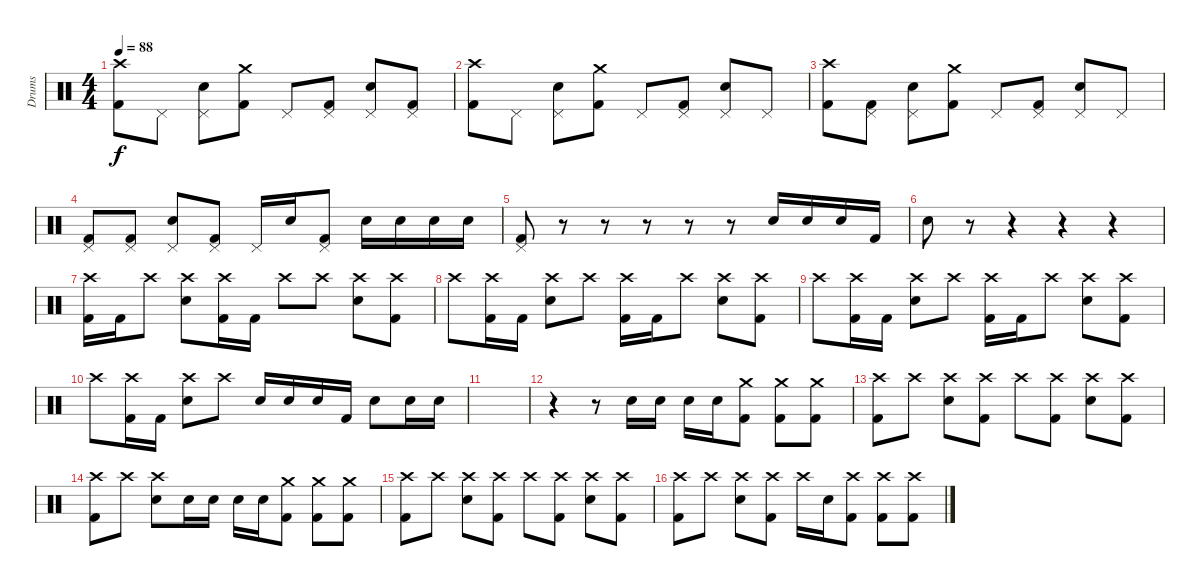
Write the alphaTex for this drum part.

\track ("Drums" "Drums") {instrument percussion}
\staff {score}
\articulation defaults
\ts (4 4)
\tempo 88
\clef neutral
\ks c
("Crash high (hit)" "Kick (hit) 2").8{dy f} "Pedal Hi-Hat (hit)".8 ("Pedal Hi-Hat (hit)" "Electric Snare (hit)").8 ("Crash medium (hit)" "Kick (hit) 2").8 "Pedal Hi-Hat (hit)".8 ("Pedal Hi-Hat (hit)" "Kick (hit) 2").8 ("Pedal Hi-Hat (hit)" "Electric Snare (hit)").8 ("Pedal Hi-Hat (hit)" "Kick (hit) 2").8 |
("Crash high (hit)" "Kick (hit) 2").8 "Pedal Hi-Hat (hit)".8 ("Pedal Hi-Hat (hit)" "Electric Snare (hit)").8 ("Crash medium (hit)" "Kick (hit) 2").8 "Pedal Hi-Hat (hit)".8 ("Pedal Hi-Hat (hit)" "Kick (hit) 2").8 ("Pedal Hi-Hat (hit)" "Electric Snare (hit)").8 "Pedal Hi-Hat (hit)".8 |
("Crash high (hit)" "Kick (hit) 2").8 ("Pedal Hi-Hat (hit)" "Kick (hit) 2").8 ("Pedal Hi-Hat (hit)" "Electric Snare (hit)").8 ("Crash medium (hit)" "Kick (hit) 2").8 "Pedal Hi-Hat (hit)".8 ("Pedal Hi-Hat (hit)" "Kick (hit) 2").8 ("Pedal Hi-Hat (hit)" "Electric Snare (hit)").8 "Pedal Hi-Hat (hit)".8 |
("Pedal Hi-Hat (hit)" "Kick (hit) 2").8 ("Pedal Hi-Hat (hit)" "Kick (hit) 2").8 ("Pedal Hi-Hat (hit)" "Electric Snare (hit)").8 ("Pedal Hi-Hat (hit)" "Kick (hit) 2").8 "Pedal Hi-Hat (hit)".16 "Electric Snare (hit)".16 ("Pedal Hi-Hat (hit)" "Kick (hit) 2").8 "Electric Snare (hit)".16 "Electric Snare (hit)".16 "Electric Snare (hit)".16 "Electric Snare (hit)".16 |
("Pedal Hi-Hat (hit)" "Kick (hit) 2").8 r.8 r.8 r.8 r.8 r.8 "Electric Snare (hit)".16 "Electric Snare (hit)".16 "Electric Snare (hit)".16 "Kick (hit) 2".16 |
"Electric Snare (hit)".8 r.8 r.4 r.4 r.4 |
("Crash high (hit)" "Kick (hit) 2").16 "Kick (hit) 2".16 "Crash high (hit)".8 ("Crash high (hit)" "Electric Snare (hit)").8 ("Crash high (hit)" "Kick (hit) 2").16 "Kick (hit) 2".16 "Crash high (hit)".8 "Crash high (hit)".8 ("Crash high (hit)" "Electric Snare (hit)").8 ("Crash high (hit)" "Kick (hit) 2").8 |
"Crash high (hit)".8 ("Crash high (hit)" "Kick (hit) 2").16 "Kick (hit) 2".16 ("Crash high (hit)" "Electric Snare (hit)").8 "Crash high (hit)".8 ("Crash high (hit)" "Kick (hit) 2").16 "Kick (hit) 2".16 "Crash high (hit)".8 ("Crash high (hit)" "Electric Snare (hit)").8 ("Crash high (hit)" "Kick (hit) 2").8 |
"Crash high (hit)".8 ("Crash high (hit)" "Kick (hit) 2").16 "Kick (hit) 2".16 ("Crash high (hit)" "Electric Snare (hit)").8 "Crash high (hit)".8 ("Crash high (hit)" "Kick (hit) 2").16 "Kick (hit) 2".16 "Crash high (hit)".8 ("Crash high (hit)" "Electric Snare (hit)").8 ("Crash high (hit)" "Kick (hit) 2").8 |
"Crash high (hit)".8 ("Crash high (hit)" "Kick (hit) 2").16 "Kick (hit) 2".16 ("Crash high (hit)" "Electric Snare (hit)").8 "Crash high (hit)".8 "Electric Snare (hit)".16 "Electric Snare (hit)".16 "Electric Snare (hit)".16 "Kick (hit) 2".16 "Electric Snare (hit)".8 "Electric Snare (hit)".16 "Electric Snare (hit)".16 |
|
r.4 r.8 "Electric Snare (hit)".16 "Electric Snare (hit)".16 "Electric Snare (hit)".16 "Electric Snare (hit)".16 ("Crash medium (hit)" "Kick (hit) 2").8 ("Crash medium (hit)" "Kick (hit) 2").8 ("Crash medium (hit)" "Kick (hit) 2").8 |
("Crash high (hit)" "Kick (hit) 2").8 "Crash high (hit)".8 ("Crash high (hit)" "Electric Snare (hit)").8 ("Crash high (hit)" "Kick (hit) 2").8 "Crash high (hit)".8 ("Crash high (hit)" "Kick (hit) 2").8 ("Crash high (hit)" "Electric Snare (hit)").8 ("Crash high (hit)" "Kick (hit) 2").8 |
("Crash high (hit)" "Kick (hit) 2").8 "Crash high (hit)".8 ("Crash high (hit)" "Electric Snare (hit)").8 "Electric Snare (hit)".16 "Electric Snare (hit)".16 "Electric Snare (hit)".16 "Electric Snare (hit)".16 ("Crash medium (hit)" "Kick (hit) 2").8 ("Crash medium (hit)" "Kick (hit) 2").8 ("Crash medium (hit)" "Kick (hit) 2").8 |
("Crash high (hit)" "Kick (hit) 2").8 "Crash high (hit)".8 ("Crash high (hit)" "Electric Snare (hit)").8 ("Crash high (hit)" "Kick (hit) 2").8 "Crash high (hit)".8 ("Crash high (hit)" "Kick (hit) 2").8 ("Crash high (hit)" "Electric Snare (hit)").8 ("Crash high (hit)" "Kick (hit) 2").8 |
("Crash high (hit)" "Kick (hit) 2").8 "Crash high (hit)".8 ("Crash high (hit)" "Electric Snare (hit)").8 ("Crash high (hit)" "Kick (hit) 2").8 "Crash high (hit)".16 "Electric Snare (hit)".16 ("Crash high (hit)" "Kick (hit) 2").8 ("Crash high (hit)" "Kick (hit) 2").8 ("Crash high (hit)" "Kick (hit) 2").8
